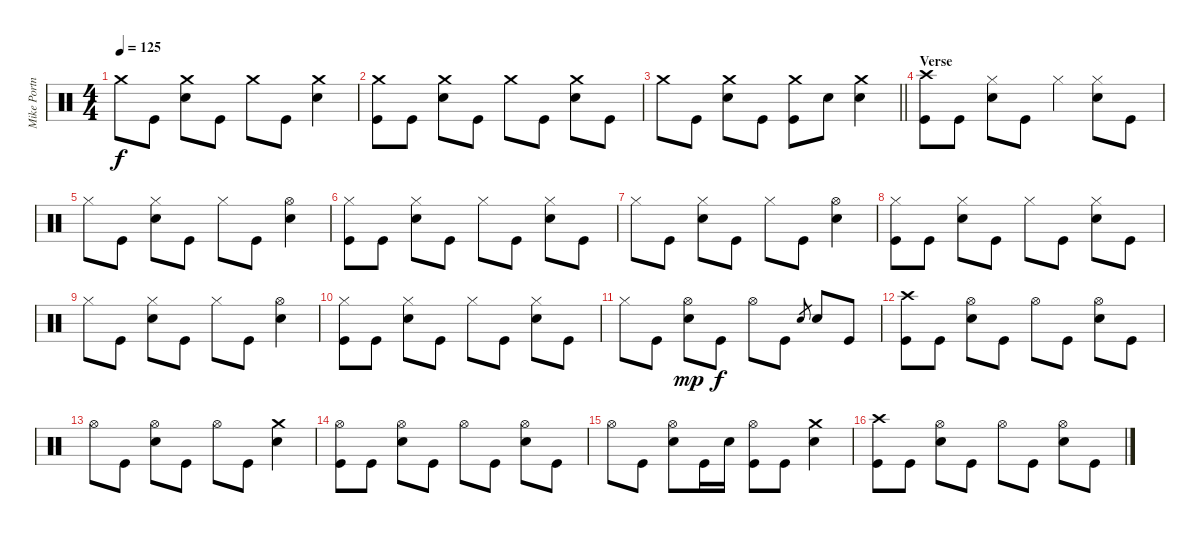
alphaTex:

\track ("Mike Portnoy" "Mike Portn") {instrument percussion}
\staff {score}
\articulation defaults
\ts (4 4)
\tempo 125
\clef neutral
\ks c "Crash medium (hit)".8{dy f} "Kick (hit)".8
("Crash medium (hit)" "Electric Snare (hit)").8 "Kick (hit)".8 "Crash medium (hit)".8 "Kick (hit)".8 ("Crash medium (hit)" "Electric Snare (hit)").4 |
("Crash medium (hit)" "Kick (hit)").8 "Kick (hit)".8 ("Crash medium (hit)" "Electric Snare (hit)").8 "Kick (hit)".8 "Crash medium (hit)".8 "Kick (hit)".8 ("Crash medium (hit)" "Electric Snare (hit)").8 "Kick (hit)".8 |
\barLineRight lightlight "Crash medium (hit)".8 "Kick (hit)".8
("Crash medium (hit)" "Electric Snare (hit)").8 "Kick (hit)".8 ("Crash medium (hit)" "Kick (hit)").8 "Electric Snare (hit)".8 ("Crash medium (hit)" "Electric Snare (hit)").4 |
\section ("" "Verse")
("Crash high (hit)" "Kick (hit)").8 "Kick (hit)".8 ("Hi-Hat (closed)" "Electric Snare (hit)").8 "Kick (hit)".8 "Hi-Hat (closed)".4 ("Hi-Hat (closed)" "Electric Snare (hit)").8 "Kick (hit)".8 |
"Hi-Hat (closed)".8 "Kick (hit)".8 ("Hi-Hat (closed)" "Electric Snare (hit)").8 "Kick (hit)".8 "Hi-Hat (closed)".8 "Kick (hit)".8 ("Hi-Hat (open)" "Electric Snare (hit)").4 |
("Hi-Hat (closed)" "Kick (hit)").8 "Kick (hit)".8 ("Hi-Hat (closed)" "Electric Snare (hit)").8 "Kick (hit)".8 "Hi-Hat (closed)".8 "Kick (hit)".8 ("Hi-Hat (closed)" "Electric Snare (hit)").8 "Kick (hit)".8 |
"Hi-Hat (closed)".8 "Kick (hit)".8 ("Hi-Hat (closed)" "Electric Snare (hit)").8 "Kick (hit)".8 "Hi-Hat (closed)".8 "Kick (hit)".8 ("Hi-Hat (open)" "Electric Snare (hit)").4 |
("Hi-Hat (closed)" "Kick (hit)").8 "Kick (hit)".8 ("Hi-Hat (closed)" "Electric Snare (hit)").8 "Kick (hit)".8 "Hi-Hat (closed)".8 "Kick (hit)".8 ("Hi-Hat (closed)" "Electric Snare (hit)").8 "Kick (hit)".8 |
"Hi-Hat (closed)".8 "Kick (hit)".8 ("Hi-Hat (closed)" "Electric Snare (hit)").8 "Kick (hit)".8 "Hi-Hat (closed)".8 "Kick (hit)".8 ("Hi-Hat (open)" "Electric Snare (hit)").4 |
("Hi-Hat (closed)" "Kick (hit)").8 "Kick (hit)".8 ("Hi-Hat (closed)" "Electric Snare (hit)").8 "Kick (hit)".8 "Hi-Hat (closed)".8 "Kick (hit)".8 ("Hi-Hat (closed)" "Electric Snare (hit)").8 "Kick (hit)".8 |
"Hi-Hat (closed)".8 "Kick (hit)".8 ("Hi-Hat (open)" "Electric Snare (hit)").8{dy mp} "Kick (hit)".8{dy f} "Hi-Hat (open)".8 "Kick (hit)".8 "Electric Snare (hit)".8{gr} "Electric Snare (hit)".8 "Kick (hit)".8 |
("Crash high (hit)" "Kick (hit)").8 "Kick (hit)".8 ("Hi-Hat (open)" "Electric Snare (hit)").8 "Kick (hit)".8 "Hi-Hat (open)".8 "Kick (hit)".8 ("Hi-Hat (open)" "Electric Snare (hit)").8 "Kick (hit)".8 |
"Hi-Hat (open)".8 "Kick (hit)".8 ("Hi-Hat (open)" "Electric Snare (hit)").8 "Kick (hit)".8 "Hi-Hat (open)".8 "Kick (hit)".8 ("Crash medium (hit)" "Electric Snare (hit)").4 |
("Hi-Hat (open)" "Kick (hit)").8 "Kick (hit)".8 ("Hi-Hat (open)" "Electric Snare (hit)").8 "Kick (hit)".8 "Hi-Hat (open)".8 "Kick (hit)".8 ("Hi-Hat (open)" "Electric Snare (hit)").8 "Kick (hit)".8 |
"Hi-Hat (open)".8 "Kick (hit)".8 ("Hi-Hat (open)" "Electric Snare (hit)").8 "Kick (hit)".16 "Electric Snare (hit)".16 ("Hi-Hat (open)" "Kick (hit)").8 "Kick (hit)".8 ("Crash medium (hit)" "Electric Snare (hit)").4 |
("Crash high (hit)" "Kick (hit)").8 "Kick (hit)".8 ("Hi-Hat (open)" "Electric Snare (hit)").8 "Kick (hit)".8 "Hi-Hat (open)".8 "Kick (hit)".8 ("Hi-Hat (open)" "Electric Snare (hit)").8 "Kick (hit)".8
